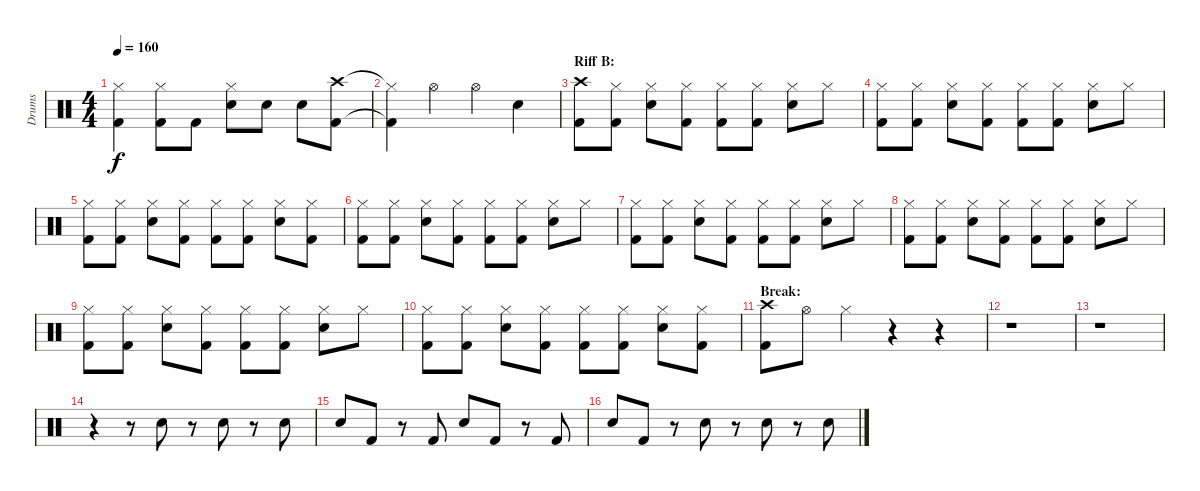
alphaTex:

\track ("Drums" "Drums") {instrument percussion}
\staff {score}
\articulation defaults
\ts (4 4)
\tempo 160
\clef neutral
\ks c
("Hi-Hat (closed)" "Kick (hit) 2").4{dy f} ("Hi-Hat (closed)" "Kick (hit) 2").8 "Kick (hit) 2".8 ("Hi-Hat (closed)" "Electric Snare (hit)").8 "Electric Snare (hit)".8 "Electric Snare (hit)".8 ("Crash high (hit)" "Kick (hit) 2").8 |
("Hi-Hat (closed)"{t} "Kick (hit) 2"{t}).4 "Hi-Hat (open)".4 "Hi-Hat (open)".4 "Electric Snare (hit)".4 |
\section ("" "Riff B:")
("Crash high (hit)" "Kick (hit) 2").8 ("Hi-Hat (closed)" "Kick (hit) 2").8 ("Hi-Hat (closed)" "Electric Snare (hit)").8 ("Hi-Hat (closed)" "Kick (hit) 2").8 ("Hi-Hat (closed)" "Kick (hit) 2").8 ("Hi-Hat (closed)" "Kick (hit) 2").8 ("Hi-Hat (closed)" "Electric Snare (hit)").8 "Hi-Hat (closed)".8 |
("Hi-Hat (closed)" "Kick (hit) 2").8 ("Hi-Hat (closed)" "Kick (hit) 2").8 ("Hi-Hat (closed)" "Electric Snare (hit)").8 ("Hi-Hat (closed)" "Kick (hit) 2").8 ("Hi-Hat (closed)" "Kick (hit) 2").8 ("Hi-Hat (closed)" "Kick (hit) 2").8 ("Hi-Hat (closed)" "Electric Snare (hit)").8 "Hi-Hat (closed)".8 |
("Hi-Hat (closed)" "Kick (hit) 2").8 ("Hi-Hat (closed)" "Kick (hit) 2").8 ("Hi-Hat (closed)" "Electric Snare (hit)").8 ("Hi-Hat (closed)" "Kick (hit) 2").8 ("Hi-Hat (closed)" "Kick (hit) 2").8 ("Hi-Hat (closed)" "Kick (hit) 2").8 ("Hi-Hat (closed)" "Electric Snare (hit)").8 ("Hi-Hat (closed)" "Kick (hit) 2").8 |
("Hi-Hat (closed)" "Kick (hit) 2").8 ("Hi-Hat (closed)" "Kick (hit) 2").8 ("Hi-Hat (closed)" "Electric Snare (hit)").8 ("Hi-Hat (closed)" "Kick (hit) 2").8 ("Hi-Hat (closed)" "Kick (hit) 2").8 ("Hi-Hat (closed)" "Kick (hit) 2").8 ("Hi-Hat (closed)" "Electric Snare (hit)").8 "Hi-Hat (closed)".8 |
("Hi-Hat (closed)" "Kick (hit) 2").8 ("Hi-Hat (closed)" "Kick (hit) 2").8 ("Hi-Hat (closed)" "Electric Snare (hit)").8 ("Hi-Hat (closed)" "Kick (hit) 2").8 ("Hi-Hat (closed)" "Kick (hit) 2").8 ("Hi-Hat (closed)" "Kick (hit) 2").8 ("Hi-Hat (closed)" "Electric Snare (hit)").8 "Hi-Hat (closed)".8 |
("Hi-Hat (closed)" "Kick (hit) 2").8 ("Hi-Hat (closed)" "Kick (hit) 2").8 ("Hi-Hat (closed)" "Electric Snare (hit)").8 ("Hi-Hat (closed)" "Kick (hit) 2").8 ("Hi-Hat (closed)" "Kick (hit) 2").8 ("Hi-Hat (closed)" "Kick (hit) 2").8 ("Hi-Hat (closed)" "Electric Snare (hit)").8 "Hi-Hat (closed)".8 |
("Hi-Hat (closed)" "Kick (hit) 2").8 ("Hi-Hat (closed)" "Kick (hit) 2").8 ("Hi-Hat (closed)" "Electric Snare (hit)").8 ("Hi-Hat (closed)" "Kick (hit) 2").8 ("Hi-Hat (closed)" "Kick (hit) 2").8 ("Hi-Hat (closed)" "Kick (hit) 2").8 ("Hi-Hat (closed)" "Electric Snare (hit)").8 "Hi-Hat (closed)".8 |
("Hi-Hat (closed)" "Kick (hit) 2").8 ("Hi-Hat (closed)" "Kick (hit) 2").8 ("Hi-Hat (closed)" "Electric Snare (hit)").8 ("Hi-Hat (closed)" "Kick (hit) 2").8 ("Hi-Hat (closed)" "Kick (hit) 2").8 ("Hi-Hat (closed)" "Kick (hit) 2").8 ("Hi-Hat (closed)" "Electric Snare (hit)").8 ("Hi-Hat (closed)" "Kick (hit) 2").8 |
\section ("" "Break:")
("Crash high (hit)" "Kick (hit) 2").8 "Hi-Hat (open)".8 "Hi-Hat (closed)".4 r.4 r.4 |
r.1 |
r.1 |
r.4 r.8 "Electric Snare (hit)".8 r.8 "Electric Snare (hit)".8 r.8 "Electric Snare (hit)".8 |
"Electric Snare (hit)".8 "Kick (hit) 2".8 r.8 "Kick (hit) 2".8 "Electric Snare (hit)".8 "Kick (hit) 2".8 r.8 "Kick (hit) 2".8 |
"Electric Snare (hit)".8 "Kick (hit) 2".8 r.8 "Electric Snare (hit)".8 r.8 "Electric Snare (hit)".8 r.8 "Electric Snare (hit)".8
